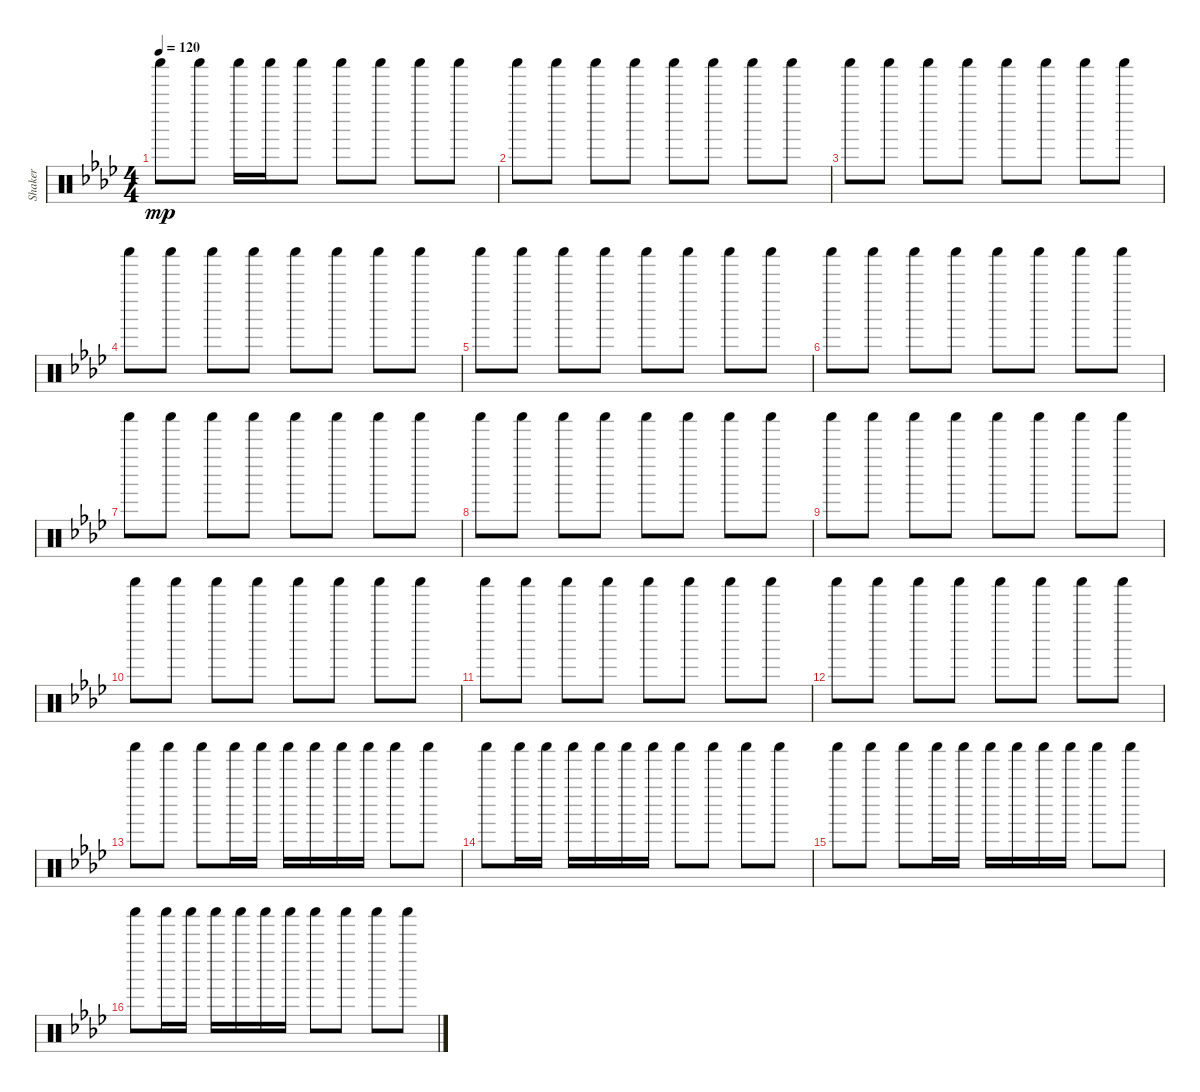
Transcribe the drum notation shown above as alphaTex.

\track ("Shaker" "Shaker") {instrument percussion}
\staff {score}
\articulation defaults
\ts (4 4)
\tempo 120
\clef neutral
\ks ab "Shaker (hit)".8{dy mp} "Shaker (hit)".8 "Shaker (hit)".16 "Shaker (hit)".16 "Shaker (hit)".8 "Shaker (hit)".8 "Shaker (hit)".8 "Shaker (hit)".8 "Shaker (hit)".8
|
"Shaker (hit)".8 "Shaker (hit)".8 "Shaker (hit)".8 "Shaker (hit)".8 "Shaker (hit)".8 "Shaker (hit)".8 "Shaker (hit)".8 "Shaker (hit)".8 |
"Shaker (hit)".8 "Shaker (hit)".8 "Shaker (hit)".8 "Shaker (hit)".8 "Shaker (hit)".8 "Shaker (hit)".8 "Shaker (hit)".8 "Shaker (hit)".8 |
"Shaker (hit)".8 "Shaker (hit)".8 "Shaker (hit)".8 "Shaker (hit)".8 "Shaker (hit)".8 "Shaker (hit)".8 "Shaker (hit)".8 "Shaker (hit)".8 |
"Shaker (hit)".8 "Shaker (hit)".8 "Shaker (hit)".8 "Shaker (hit)".8 "Shaker (hit)".8 "Shaker (hit)".8 "Shaker (hit)".8 "Shaker (hit)".8 |
"Shaker (hit)".8 "Shaker (hit)".8 "Shaker (hit)".8 "Shaker (hit)".8 "Shaker (hit)".8 "Shaker (hit)".8 "Shaker (hit)".8 "Shaker (hit)".8 |
"Shaker (hit)".8 "Shaker (hit)".8 "Shaker (hit)".8 "Shaker (hit)".8 "Shaker (hit)".8 "Shaker (hit)".8 "Shaker (hit)".8 "Shaker (hit)".8 |
"Shaker (hit)".8 "Shaker (hit)".8 "Shaker (hit)".8 "Shaker (hit)".8 "Shaker (hit)".8 "Shaker (hit)".8 "Shaker (hit)".8 "Shaker (hit)".8 |
"Shaker (hit)".8 "Shaker (hit)".8 "Shaker (hit)".8 "Shaker (hit)".8 "Shaker (hit)".8 "Shaker (hit)".8 "Shaker (hit)".8 "Shaker (hit)".8 |
"Shaker (hit)".8 "Shaker (hit)".8 "Shaker (hit)".8 "Shaker (hit)".8 "Shaker (hit)".8 "Shaker (hit)".8 "Shaker (hit)".8 "Shaker (hit)".8 |
"Shaker (hit)".8 "Shaker (hit)".8 "Shaker (hit)".8 "Shaker (hit)".8 "Shaker (hit)".8 "Shaker (hit)".8 "Shaker (hit)".8 "Shaker (hit)".8 |
"Shaker (hit)".8 "Shaker (hit)".8 "Shaker (hit)".8 "Shaker (hit)".8 "Shaker (hit)".8 "Shaker (hit)".8 "Shaker (hit)".8 "Shaker (hit)".8 |
"Shaker (hit)".8 "Shaker (hit)".8 "Shaker (hit)".8 "Shaker (hit)".16 "Shaker (hit)".16 "Shaker (hit)".16 "Shaker (hit)".16 "Shaker (hit)".16 "Shaker (hit)".16 "Shaker (hit)".8 "Shaker (hit)".8 |
"Shaker (hit)".8 "Shaker (hit)".16 "Shaker (hit)".16 "Shaker (hit)".16 "Shaker (hit)".16 "Shaker (hit)".16 "Shaker (hit)".16 "Shaker (hit)".8 "Shaker (hit)".8 "Shaker (hit)".8 "Shaker (hit)".8 |
"Shaker (hit)".8 "Shaker (hit)".8 "Shaker (hit)".8 "Shaker (hit)".16 "Shaker (hit)".16 "Shaker (hit)".16 "Shaker (hit)".16 "Shaker (hit)".16 "Shaker (hit)".16 "Shaker (hit)".8 "Shaker (hit)".8 |
"Shaker (hit)".8 "Shaker (hit)".16 "Shaker (hit)".16 "Shaker (hit)".16 "Shaker (hit)".16 "Shaker (hit)".16 "Shaker (hit)".16 "Shaker (hit)".8 "Shaker (hit)".8 "Shaker (hit)".8 "Shaker (hit)".8
